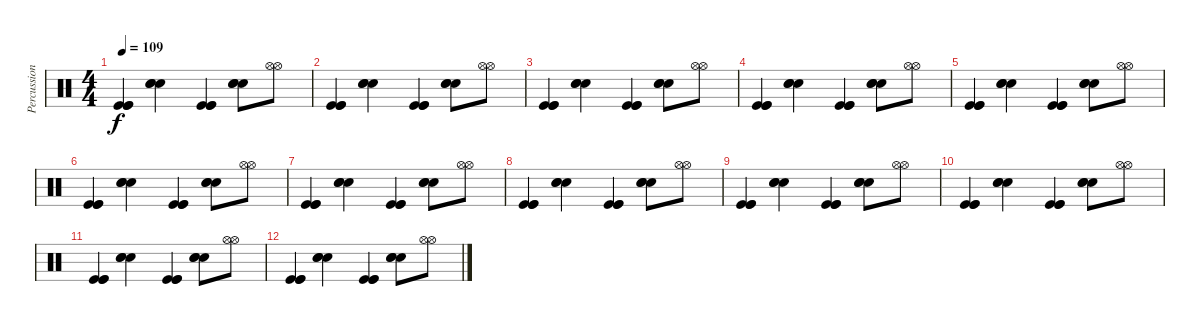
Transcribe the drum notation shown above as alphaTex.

\track ("Percussions" "Percussion") {instrument percussion}
\staff {score}
\articulation defaults
\ts (4 4)
\tempo 109
\clef neutral
\ks c
("Kick (hit)" "Kick (hit)" "Kick (hit)").4{dy f} ("Snare (hit) 2" "Snare (hit) 2" "Snare (hit) 2").4 ("Kick (hit)" "Kick (hit)" "Kick (hit)").4 ("Snare (hit) 2" "Snare (hit) 2" "Snare (hit) 2").8 ("Hi-Hat (open)" "Hi-Hat (open)").8 |
("Kick (hit)" "Kick (hit)" "Kick (hit)").4 ("Snare (hit) 2" "Snare (hit) 2" "Snare (hit) 2").4 ("Kick (hit)" "Kick (hit)" "Kick (hit)").4 ("Snare (hit) 2" "Snare (hit) 2" "Snare (hit) 2").8 ("Hi-Hat (open)" "Hi-Hat (open)").8 |
("Kick (hit)" "Kick (hit)" "Kick (hit)").4 ("Snare (hit) 2" "Snare (hit) 2" "Snare (hit) 2").4 ("Kick (hit)" "Kick (hit)" "Kick (hit)").4 ("Snare (hit) 2" "Snare (hit) 2" "Snare (hit) 2").8 ("Hi-Hat (open)" "Hi-Hat (open)").8 |
("Kick (hit)" "Kick (hit)" "Kick (hit)").4 ("Snare (hit) 2" "Snare (hit) 2" "Snare (hit) 2").4 ("Kick (hit)" "Kick (hit)" "Kick (hit)").4 ("Snare (hit) 2" "Snare (hit) 2" "Snare (hit) 2").8 ("Hi-Hat (open)" "Hi-Hat (open)").8 |
("Kick (hit)" "Kick (hit)" "Kick (hit)").4 ("Snare (hit) 2" "Snare (hit) 2" "Snare (hit) 2").4 ("Kick (hit)" "Kick (hit)" "Kick (hit)").4 ("Snare (hit) 2" "Snare (hit) 2" "Snare (hit) 2").8 ("Hi-Hat (open)" "Hi-Hat (open)").8 |
("Kick (hit)" "Kick (hit)" "Kick (hit)").4 ("Snare (hit) 2" "Snare (hit) 2" "Snare (hit) 2").4 ("Kick (hit)" "Kick (hit)" "Kick (hit)").4 ("Snare (hit) 2" "Snare (hit) 2" "Snare (hit) 2").8 ("Hi-Hat (open)" "Hi-Hat (open)").8 |
("Kick (hit)" "Kick (hit)" "Kick (hit)").4 ("Snare (hit) 2" "Snare (hit) 2" "Snare (hit) 2").4 ("Kick (hit)" "Kick (hit)" "Kick (hit)").4 ("Snare (hit) 2" "Snare (hit) 2" "Snare (hit) 2").8 ("Hi-Hat (open)" "Hi-Hat (open)").8 |
("Kick (hit)" "Kick (hit)" "Kick (hit)").4 ("Snare (hit) 2" "Snare (hit) 2" "Snare (hit) 2").4 ("Kick (hit)" "Kick (hit)" "Kick (hit)").4 ("Snare (hit) 2" "Snare (hit) 2" "Snare (hit) 2").8 ("Hi-Hat (open)" "Hi-Hat (open)").8 |
("Kick (hit)" "Kick (hit)" "Kick (hit)").4 ("Snare (hit) 2" "Snare (hit) 2" "Snare (hit) 2").4 ("Kick (hit)" "Kick (hit)" "Kick (hit)").4 ("Snare (hit) 2" "Snare (hit) 2" "Snare (hit) 2").8 ("Hi-Hat (open)" "Hi-Hat (open)").8 |
("Kick (hit)" "Kick (hit)" "Kick (hit)").4 ("Snare (hit) 2" "Snare (hit) 2" "Snare (hit) 2").4 ("Kick (hit)" "Kick (hit)" "Kick (hit)").4 ("Snare (hit) 2" "Snare (hit) 2" "Snare (hit) 2").8 ("Hi-Hat (open)" "Hi-Hat (open)").8 |
("Kick (hit)" "Kick (hit)" "Kick (hit)").4 ("Snare (hit) 2" "Snare (hit) 2" "Snare (hit) 2").4 ("Kick (hit)" "Kick (hit)" "Kick (hit)").4 ("Snare (hit) 2" "Snare (hit) 2" "Snare (hit) 2").8 ("Hi-Hat (open)" "Hi-Hat (open)").8 |
("Kick (hit)" "Kick (hit)" "Kick (hit)").4 ("Snare (hit) 2" "Snare (hit) 2" "Snare (hit) 2").4 ("Kick (hit)" "Kick (hit)" "Kick (hit)").4 ("Snare (hit) 2" "Snare (hit) 2" "Snare (hit) 2").8 ("Hi-Hat (open)" "Hi-Hat (open)").8
